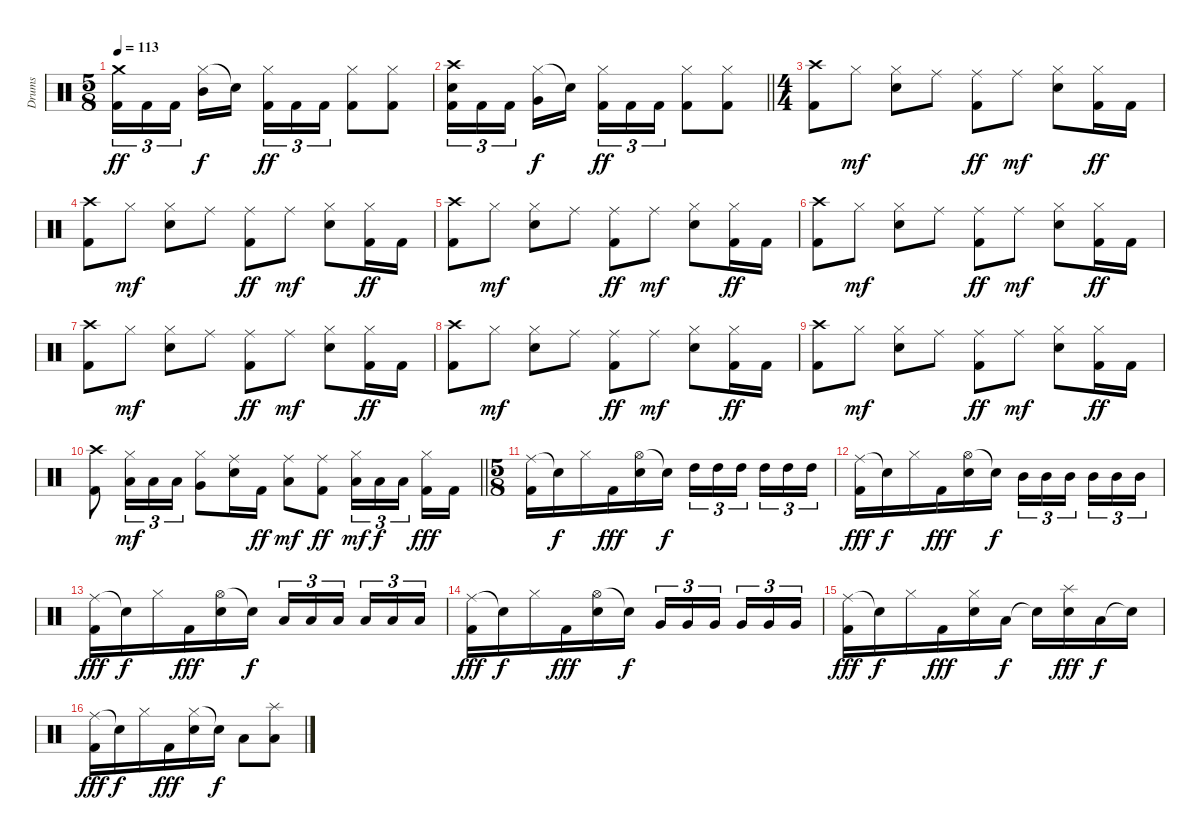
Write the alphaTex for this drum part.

\track ("Drums" "Drums") {instrument percussion}
\staff {score}
\articulation defaults
\ts (5 8)
\tempo 113
\clef neutral
\ks c
("Crash medium (hit)" "Kick (hit) 2").16{tu (3 2) dy ff} "Kick (hit) 2".16{tu (3 2)} "Kick (hit) 2".16{tu (3 2)} ("Hi-Hat (closed)" "Mid Tom (hit)").16{dy f} "Snare (hit)"{t}.16 ("Hi-Hat (closed)" "Kick (hit) 2").16{tu (3 2) dy ff} "Kick (hit) 2".16{tu (3 2)} "Kick (hit) 2".16{tu (3 2)} ("Hi-Hat (closed)" "Kick (hit) 2").8 ("Hi-Hat (closed)" "Kick (hit) 2").8 |
\barLineRight lightlight
("Crash high (hit)" "Snare (hit) 2" "Kick (hit) 2").16{tu (3 2)} "Kick (hit) 2".16{tu (3 2)} "Kick (hit) 2".16{tu (3 2)} ("Hi-Hat (closed)" "Very Low Tom (hit)").16{dy f} "Snare (hit)"{t}.16 ("Hi-Hat (closed)" "Kick (hit) 2").16{tu (3 2) dy ff} "Kick (hit) 2".16{tu (3 2)} "Kick (hit) 2".16{tu (3 2)} ("Hi-Hat (closed)" "Kick (hit) 2").8 ("Hi-Hat (closed)" "Kick (hit) 2").8 |
\ts (4 4)
\section ("" "")
("Crash high (hit)" "Kick (hit) 2").8 "Hi-Hat (closed)".8{dy mf} ("Hi-Hat (closed)" "Snare (hit) 2").8 "Ride (middle)".8 ("Ride (middle)" "Kick (hit) 2").8{dy ff} "Ride (middle)".8{dy mf} ("Hi-Hat (closed)" "Snare (hit) 2").8 ("Hi-Hat (closed)" "Kick (hit) 2").16{dy ff} "Kick (hit) 2".16 |
("Crash high (hit)" "Kick (hit) 2").8 "Hi-Hat (closed)".8{dy mf} ("Hi-Hat (closed)" "Snare (hit) 2").8 "Ride (middle)".8 ("Ride (middle)" "Kick (hit) 2").8{dy ff} "Ride (middle)".8{dy mf} ("Hi-Hat (closed)" "Snare (hit) 2").8 ("Hi-Hat (closed)" "Kick (hit) 2").16{dy ff} "Kick (hit) 2".16 |
("Crash high (hit)" "Kick (hit) 2").8 "Hi-Hat (closed)".8{dy mf} ("Hi-Hat (closed)" "Snare (hit) 2").8 "Ride (middle)".8 ("Ride (middle)" "Kick (hit) 2").8{dy ff} "Ride (middle)".8{dy mf} ("Hi-Hat (closed)" "Snare (hit) 2").8 ("Hi-Hat (closed)" "Kick (hit) 2").16{dy ff} "Kick (hit) 2".16 |
("Crash high (hit)" "Kick (hit) 2").8 "Hi-Hat (closed)".8{dy mf} ("Hi-Hat (closed)" "Snare (hit) 2").8 "Ride (middle)".8 ("Ride (middle)" "Kick (hit) 2").8{dy ff} "Ride (middle)".8{dy mf} ("Hi-Hat (closed)" "Snare (hit) 2").8 ("Hi-Hat (closed)" "Kick (hit) 2").16{dy ff} "Kick (hit) 2".16 |
("Crash high (hit)" "Kick (hit) 2").8 "Hi-Hat (closed)".8{dy mf} ("Hi-Hat (closed)" "Snare (hit) 2").8 "Ride (middle)".8 ("Ride (middle)" "Kick (hit) 2").8{dy ff} "Ride (middle)".8{dy mf} ("Hi-Hat (closed)" "Snare (hit) 2").8 ("Hi-Hat (closed)" "Kick (hit) 2").16{dy ff} "Kick (hit) 2".16 |
("Crash high (hit)" "Kick (hit) 2").8 "Hi-Hat (closed)".8{dy mf} ("Hi-Hat (closed)" "Snare (hit) 2").8 "Ride (middle)".8 ("Ride (middle)" "Kick (hit) 2").8{dy ff} "Ride (middle)".8{dy mf} ("Hi-Hat (closed)" "Snare (hit) 2").8 ("Hi-Hat (closed)" "Kick (hit) 2").16{dy ff} "Kick (hit) 2".16 |
("Crash high (hit)" "Kick (hit) 2").8 "Hi-Hat (closed)".8{dy mf} ("Hi-Hat (closed)" "Snare (hit) 2").8 "Ride (middle)".8 ("Ride (middle)" "Kick (hit) 2").8{dy ff} "Ride (middle)".8{dy mf} ("Hi-Hat (closed)" "Snare (hit) 2").8 ("Hi-Hat (closed)" "Kick (hit) 2").16{dy ff} "Kick (hit) 2".16 |
\barLineRight lightlight
("Crash high (hit)" "Kick (hit) 2").8 ("Hi-Hat (closed)" "Low Tom (hit)").16{tu (3 2) dy mf} "Low Tom (hit)".16{tu (3 2)} "Low Tom (hit)".16{tu (3 2)} ("Hi-Hat (closed)" "Very Low Tom (hit)").8 ("Ride (middle)" "Snare (hit) 2").16 "Kick (hit) 2".16{dy ff} ("Ride (middle)" "Low Tom (hit)").8{dy mf} ("Ride (middle)" "Kick (hit) 2").8{dy ff} ("Hi-Hat (closed)" "Low Tom (hit)").16{tu (3 2) dy mf} "Low Tom (hit)".16{tu (3 2) dy f} "Low Tom (hit)".16{tu (3 2) beam splitsecondary} ("Hi-Hat (closed)" "Kick (hit) 2").16{dy fff} "Kick (hit) 2".16 |
\ts (5 8)
\section ("" "")
("Ride (middle)" "Kick (hit) 2").16 "Snare (hit)"{t}.16{dy f} "Hi-Hat (closed)".16 "Kick (hit) 2".16{dy fff} ("Hi-Hat (open)" "Snare (hit) 2").16 "Snare (hit)"{t}.16{dy f} "High Tom (hit)".16{tu (3 2)} "High Tom (hit)".16{tu (3 2)} "High Tom (hit)".16{tu (3 2)} "High Tom (hit)".16{tu (3 2)} "High Tom (hit)".16{tu (3 2)} "High Tom (hit)".16{tu (3 2)} |
("Ride (middle)" "Kick (hit) 2").16{dy fff} "Snare (hit)"{t}.16{dy f} "Hi-Hat (closed)".16 "Kick (hit) 2".16{dy fff} ("Hi-Hat (open)" "Snare (hit) 2").16 "Snare (hit)"{t}.16{dy f} "Mid Tom (hit)".16{tu (3 2)} "Mid Tom (hit)".16{tu (3 2)} "Mid Tom (hit)".16{tu (3 2)} "Mid Tom (hit)".16{tu (3 2)} "Mid Tom (hit)".16{tu (3 2)} "Mid Tom (hit)".16{tu (3 2)} |
("Ride (middle)" "Kick (hit) 2").16{dy fff} "Snare (hit)"{t}.16{dy f} "Hi-Hat (closed)".16 "Kick (hit) 2".16{dy fff} ("Hi-Hat (open)" "Snare (hit) 2").16 "Snare (hit)"{t}.16{dy f} "Low Tom (hit)".16{tu (3 2)} "Low Tom (hit)".16{tu (3 2)} "Low Tom (hit)".16{tu (3 2)} "Low Tom (hit)".16{tu (3 2)} "Low Tom (hit)".16{tu (3 2)} "Low Tom (hit)".16{tu (3 2)} |
("Ride (middle)" "Kick (hit) 2").16{dy fff} "Snare (hit)"{t}.16{dy f} "Hi-Hat (closed)".16 "Kick (hit) 2".16{dy fff} ("Hi-Hat (open)" "Snare (hit) 2").16 "Snare (hit)"{t}.16{dy f} "Very Low Tom (hit)".16{tu (3 2)} "Very Low Tom (hit)".16{tu (3 2)} "Very Low Tom (hit)".16{tu (3 2)} "Very Low Tom (hit)".16{tu (3 2)} "Very Low Tom (hit)".16{tu (3 2)} "Very Low Tom (hit)".16{tu (3 2)} |
("Ride (middle)" "Kick (hit) 2").16{dy fff} "Snare (hit)"{t}.16{dy f} "Hi-Hat (closed)".16 "Kick (hit) 2".16{dy fff} ("Hi-Hat (closed)" "Snare (hit) 2").16 "Low Tom (hit)".16{dy f} "Snare (hit)"{t}.16 ("Splash (hit)" "Snare (hit) 2").16{dy fff} "Low Tom (hit)".16{dy f} "Snare (hit)"{t}.16 |
("Ride (middle)" "Kick (hit) 2").16{dy fff} "Snare (hit)"{t}.16{dy f} "Hi-Hat (closed)".16 "Kick (hit) 2".16{dy fff} ("Hi-Hat (closed)" "Snare (hit) 2").16 "Snare (hit)"{t}.16{dy f} "Low Tom (hit)".8 ("Splash (hit)" "Low Tom (hit)").8
